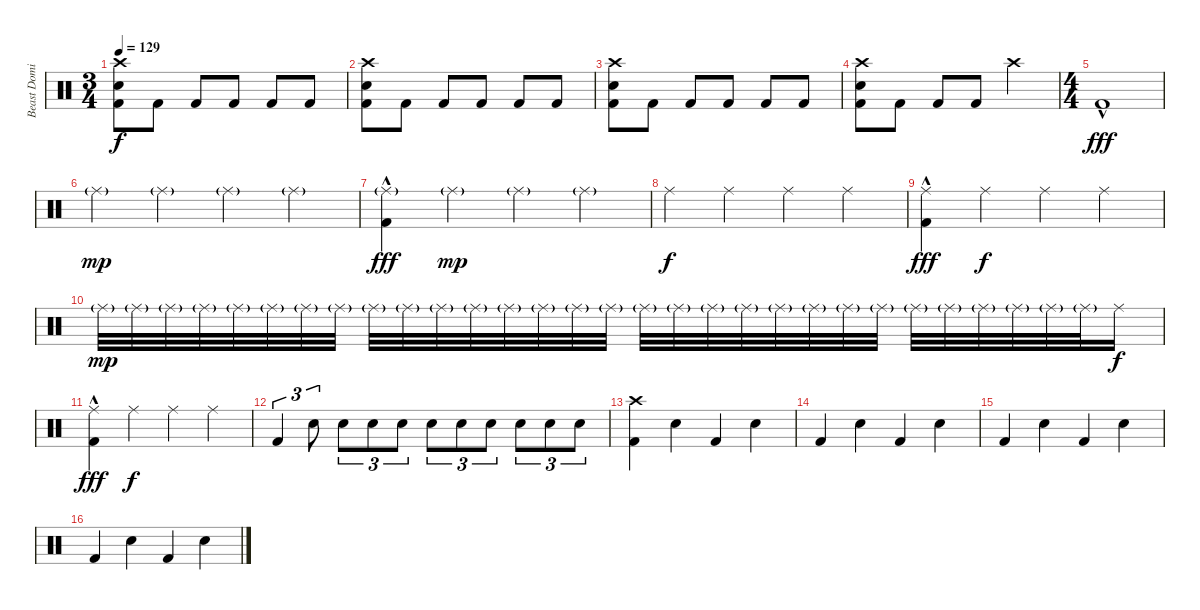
\track ("Beast Dominator" "Beast Domi") {instrument percussion}
\staff
\articulation defaults
\ts (3 4)
\tempo 129
\clef neutral
\ks c
("Crash high (hit)" "Snare (hit) 2" "Kick (hit) 2").8{dy f} "Kick (hit) 2".8 "Kick (hit) 2".8 "Kick (hit) 2".8 "Kick (hit) 2".8 "Kick (hit) 2".8 |
("Crash high (hit)" "Snare (hit) 2" "Kick (hit) 2").8 "Kick (hit) 2".8 "Kick (hit) 2".8 "Kick (hit) 2".8 "Kick (hit) 2".8 "Kick (hit) 2".8 |
("Crash high (hit)" "Snare (hit) 2" "Kick (hit) 2").8 "Kick (hit) 2".8 "Kick (hit) 2".8 "Kick (hit) 2".8 "Kick (hit) 2".8 "Kick (hit) 2".8 |
("Crash high (hit)" "Snare (hit) 2" "Kick (hit) 2").8 "Kick (hit) 2".8 "Kick (hit) 2".8 "Kick (hit) 2".8 "Crash high (hit)".4 |
\ts (4 4)
"Kick (hit) 2"{hac}.1{dy fff} |
"Ride (middle)"{g}.4{dy mp} "Ride (middle)"{g}.4 "Ride (middle)"{g}.4 "Ride (middle)"{g}.4 |
("Ride (middle)"{g} "Kick (hit) 2"{hac}).4{dy fff} "Ride (middle)"{g}.4{dy mp} "Ride (middle)"{g}.4 "Ride (middle)"{g}.4 |
"Ride (middle)".4{dy f} "Ride (middle)".4 "Ride (middle)".4 "Ride (middle)".4 |
("Ride (middle)" "Kick (hit) 2"{hac}).4{dy fff} "Ride (middle)".4{dy f} "Ride (middle)".4 "Ride (middle)".4 |
"Ride (middle)"{g}.32{dy mp} "Ride (middle)"{g}.32 "Ride (middle)"{g}.32 "Ride (middle)"{g}.32 "Ride (middle)"{g}.32 "Ride (middle)"{g}.32 "Ride (middle)"{g}.32 "Ride (middle)"{g}.32 "Ride (middle)"{g}.32 "Ride (middle)"{g}.32 "Ride (middle)"{g}.32 "Ride (middle)"{g}.32 "Ride (middle)"{g}.32 "Ride (middle)"{g}.32 "Ride (middle)"{g}.32 "Ride (middle)"{g}.32 "Ride (middle)"{g}.32 "Ride (middle)"{g}.32 "Ride (middle)"{g}.32 "Ride (middle)"{g}.32 "Ride (middle)"{g}.32 "Ride (middle)"{g}.32 "Ride (middle)"{g}.32 "Ride (middle)"{g}.32 "Ride (middle)"{g}.32 "Ride (middle)"{g}.32 "Ride (middle)"{g}.32 "Ride (middle)"{g}.32 "Ride (middle)"{g}.32 "Ride (middle)"{g}.32 "Ride (middle)".16{dy f} |
("Ride (middle)" "Kick (hit) 2"{hac}).4{dy fff} "Ride (middle)".4{dy f} "Ride (middle)".4 "Ride (middle)".4 |
"Kick (hit) 2".4{tu (3 2)} "Snare (hit) 2".8{tu (3 2)} "Snare (hit) 2".8{tu (3 2)} "Snare (hit) 2".8{tu (3 2)} "Snare (hit) 2".8{tu (3 2)} "Snare (hit) 2".8{tu (3 2)} "Snare (hit) 2".8{tu (3 2)} "Snare (hit) 2".8{tu (3 2)} "Snare (hit) 2".8{tu (3 2)} "Snare (hit) 2".8{tu (3 2)} "Snare (hit) 2".8{tu (3 2)} |
("Crash high (hit)" "Kick (hit) 2").4 "Snare (hit) 2".4 "Kick (hit) 2".4 "Snare (hit) 2".4 |
"Kick (hit) 2".4 "Snare (hit) 2".4 "Kick (hit) 2".4 "Electric Snare (hit)".4 |
"Kick (hit) 2".4 "Snare (hit) 2".4 "Kick (hit) 2".4 "Snare (hit) 2".4 |
"Kick (hit) 2".4 "Snare (hit) 2".4 "Kick (hit) 2".4 "Electric Snare (hit)".4
